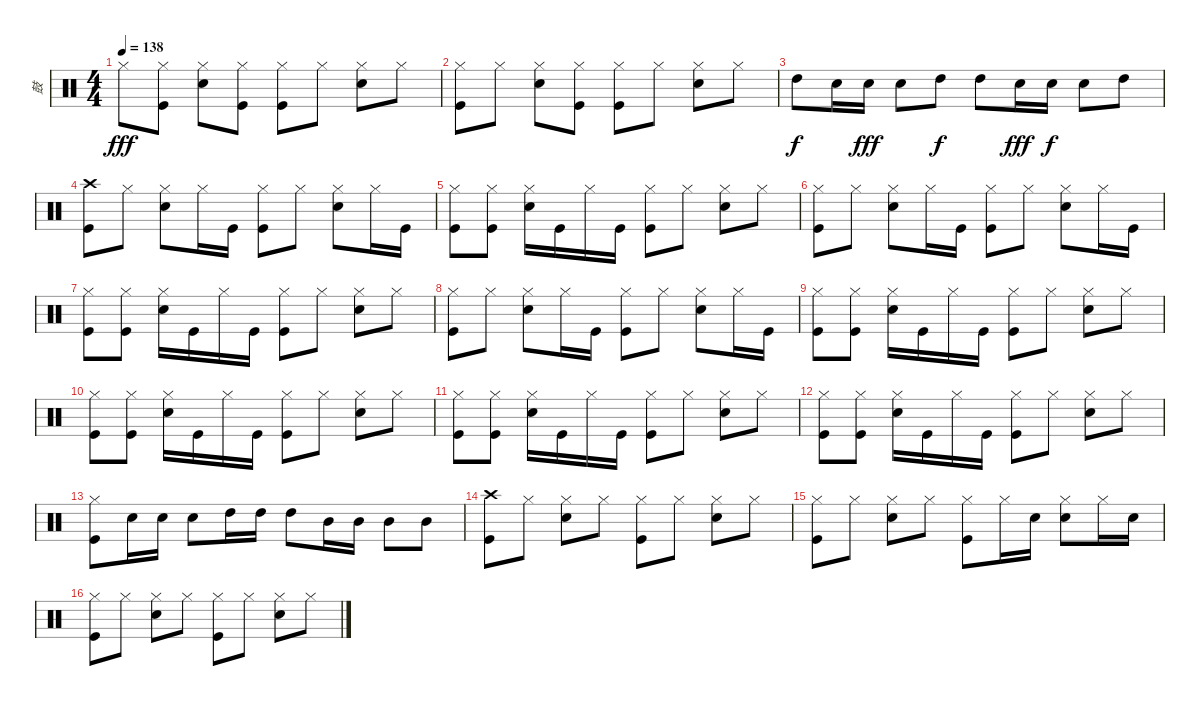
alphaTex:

\track ("鼓" "鼓") {instrument percussion}
\staff {score}
\articulation defaults
\ts (4 4)
\tempo 138
\clef neutral
\ks c "Hi-Hat (closed)".8{dy fff}
("Hi-Hat (closed)" "Kick (hit)").8 ("Hi-Hat (closed)" "Snare (hit) 2").8 ("Hi-Hat (closed)" "Kick (hit)").8 ("Hi-Hat (closed)" "Kick (hit)").8 "Hi-Hat (closed)".8 ("Hi-Hat (closed)" "Snare (hit) 2").8 "Hi-Hat (closed)".8 |
("Hi-Hat (closed)" "Kick (hit)").8 "Hi-Hat (closed)".8 ("Hi-Hat (closed)" "Snare (hit) 2").8 ("Hi-Hat (closed)" "Kick (hit)").8 ("Hi-Hat (closed)" "Kick (hit)").8 "Hi-Hat (closed)".8 ("Hi-Hat (closed)" "Snare (hit) 2").8 "Hi-Hat (closed)".8 |
"High Tom (hit)".8{dy f} "Snare (hit) 2".16 "Snare (hit) 2".16{dy fff} "Snare (hit) 2".8 "High Tom (hit)".8{dy f} "High Tom (hit)".8 "Snare (hit) 2".16{dy fff} "Snare (hit) 2".16{dy f} "Snare (hit) 2".8 "High Tom (hit)".8 |
("Crash high (hit)" "Kick (hit)").8 "Hi-Hat (closed)".8 ("Hi-Hat (closed)" "Snare (hit) 2").8 "Hi-Hat (closed)".16 "Kick (hit)".16 ("Hi-Hat (closed)" "Kick (hit)").8 "Hi-Hat (closed)".8 ("Hi-Hat (closed)" "Snare (hit) 2").8 "Hi-Hat (closed)".16 "Kick (hit)".16 |
("Hi-Hat (closed)" "Kick (hit)").8 ("Hi-Hat (closed)" "Kick (hit)").8 ("Hi-Hat (closed)" "Snare (hit) 2").16 "Kick (hit)".16 "Hi-Hat (closed)".16 "Kick (hit)".16 ("Hi-Hat (closed)" "Kick (hit)").8 "Hi-Hat (closed)".8 ("Hi-Hat (closed)" "Snare (hit) 2").8 "Hi-Hat (closed)".8 |
("Hi-Hat (closed)" "Kick (hit)").8 "Hi-Hat (closed)".8 ("Hi-Hat (closed)" "Snare (hit) 2").8 "Hi-Hat (closed)".16 "Kick (hit)".16 ("Hi-Hat (closed)" "Kick (hit)").8 "Hi-Hat (closed)".8 ("Hi-Hat (closed)" "Snare (hit) 2").8 "Hi-Hat (closed)".16 "Kick (hit)".16 |
("Hi-Hat (closed)" "Kick (hit)").8 ("Hi-Hat (closed)" "Kick (hit)").8 ("Hi-Hat (closed)" "Snare (hit) 2").16 "Kick (hit)".16 "Hi-Hat (closed)".16 "Kick (hit)".16 ("Hi-Hat (closed)" "Kick (hit)").8 "Hi-Hat (closed)".8 ("Hi-Hat (closed)" "Snare (hit) 2").8 "Hi-Hat (closed)".8 |
("Hi-Hat (closed)" "Kick (hit)").8 "Hi-Hat (closed)".8 ("Hi-Hat (closed)" "Snare (hit) 2").8 "Hi-Hat (closed)".16 "Kick (hit)".16 ("Hi-Hat (closed)" "Kick (hit)").8 "Hi-Hat (closed)".8 ("Hi-Hat (closed)" "Snare (hit) 2").8 "Hi-Hat (closed)".16 "Kick (hit)".16 |
("Hi-Hat (closed)" "Kick (hit)").8 ("Hi-Hat (closed)" "Kick (hit)").8 ("Hi-Hat (closed)" "Snare (hit) 2").16 "Kick (hit)".16 "Hi-Hat (closed)".16 "Kick (hit)".16 ("Hi-Hat (closed)" "Kick (hit)").8 "Hi-Hat (closed)".8 ("Hi-Hat (closed)" "Snare (hit) 2").8 "Hi-Hat (closed)".8 |
("Hi-Hat (closed)" "Kick (hit)").8 ("Hi-Hat (closed)" "Kick (hit)").8 ("Hi-Hat (closed)" "Snare (hit) 2").16 "Kick (hit)".16 "Hi-Hat (closed)".16 "Kick (hit)".16 ("Hi-Hat (closed)" "Kick (hit)").8 "Hi-Hat (closed)".8 ("Hi-Hat (closed)" "Snare (hit) 2").8 "Hi-Hat (closed)".8 |
("Hi-Hat (closed)" "Kick (hit)").8 ("Hi-Hat (closed)" "Kick (hit)").8 ("Hi-Hat (closed)" "Snare (hit) 2").16 "Kick (hit)".16 "Hi-Hat (closed)".16 "Kick (hit)".16 ("Hi-Hat (closed)" "Kick (hit)").8 "Hi-Hat (closed)".8 ("Hi-Hat (closed)" "Snare (hit) 2").8 "Hi-Hat (closed)".8 |
("Hi-Hat (closed)" "Kick (hit)").8 ("Hi-Hat (closed)" "Kick (hit)").8 ("Hi-Hat (closed)" "Snare (hit) 2").16 "Kick (hit)".16 "Hi-Hat (closed)".16 "Kick (hit)".16 ("Hi-Hat (closed)" "Kick (hit)").8 "Hi-Hat (closed)".8 ("Hi-Hat (closed)" "Snare (hit) 2").8 "Hi-Hat (closed)".8 |
("Hi-Hat (closed)" "Kick (hit)").8 "Snare (hit) 2".16 "Snare (hit) 2".16 "Snare (hit) 2".8 "High Tom (hit)".16 "High Tom (hit)".16 "High Tom (hit)".8 "Mid Tom (hit)".16 "Mid Tom (hit)".16 "Mid Tom (hit)".8 "Mid Tom (hit)".8 |
("Crash high (hit)" "Kick (hit)").8 "Hi-Hat (closed)".8 ("Hi-Hat (closed)" "Snare (hit) 2").8 "Hi-Hat (closed)".8 ("Hi-Hat (closed)" "Kick (hit)").8 "Hi-Hat (closed)".8 ("Hi-Hat (closed)" "Snare (hit) 2").8 "Hi-Hat (closed)".8 |
("Hi-Hat (closed)" "Kick (hit)").8 "Hi-Hat (closed)".8 ("Hi-Hat (closed)" "Snare (hit) 2").8 "Hi-Hat (closed)".8 ("Hi-Hat (closed)" "Kick (hit)").8 "Hi-Hat (closed)".16 "Snare (hit) 2".16 ("Hi-Hat (closed)" "Snare (hit) 2").8 "Hi-Hat (closed)".16 "Snare (hit) 2".16 |
("Hi-Hat (closed)" "Kick (hit)").8 "Hi-Hat (closed)".8 ("Hi-Hat (closed)" "Snare (hit) 2").8 "Hi-Hat (closed)".8 ("Hi-Hat (closed)" "Kick (hit)").8 "Hi-Hat (closed)".8 ("Hi-Hat (closed)" "Snare (hit) 2").8 "Hi-Hat (closed)".8
